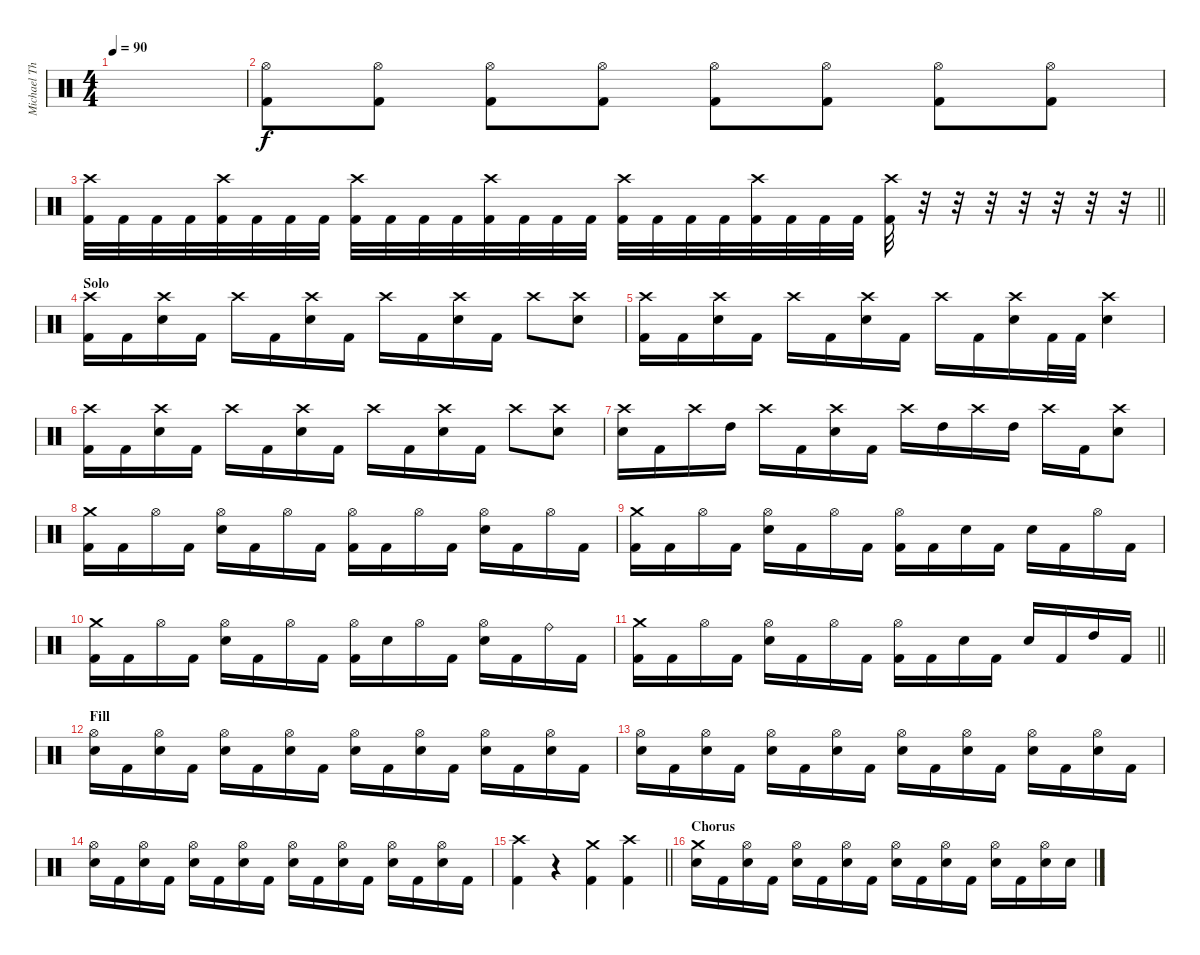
\track ("Michael Thomas" "Michael Th") {instrument percussion}
\staff {score}
\articulation defaults
\ts (4 4)
\tempo 90
\clef neutral
\ks c
|
("Hi-Hat (open)" "Kick (hit) 2").8 ("Hi-Hat (open)" "Kick (hit) 2").8 ("Hi-Hat (open)" "Kick (hit) 2").8 ("Hi-Hat (open)" "Kick (hit) 2").8 ("Hi-Hat (open)" "Kick (hit) 2").8 ("Hi-Hat (open)" "Kick (hit) 2").8 ("Hi-Hat (open)" "Kick (hit) 2").8 ("Hi-Hat (open)" "Kick (hit) 2").8 |
\barLineRight lightlight
("Crash high (hit)" "Kick (hit) 2").32 "Kick (hit) 2".32 "Kick (hit) 2".32 "Kick (hit) 2".32 ("Crash high (hit)" "Kick (hit) 2").32 "Kick (hit) 2".32 "Kick (hit) 2".32 "Kick (hit) 2".32 ("Crash high (hit)" "Kick (hit) 2").32 "Kick (hit) 2".32 "Kick (hit) 2".32 "Kick (hit) 2".32 ("Crash high (hit)" "Kick (hit) 2").32 "Kick (hit) 2".32 "Kick (hit) 2".32 "Kick (hit) 2".32 ("Crash high (hit)" "Kick (hit) 2").32 "Kick (hit) 2".32 "Kick (hit) 2".32 "Kick (hit) 2".32 ("Crash high (hit)" "Kick (hit) 2").32 "Kick (hit) 2".32 "Kick (hit) 2".32 "Kick (hit) 2".32 ("Crash high (hit)" "Kick (hit) 2").32 r.32 r.32 r.32 r.32 r.32 r.32 r.32 |
\section ("" "Solo")
("Crash high (hit)" "Kick (hit) 2").16 "Kick (hit) 2".16 ("Crash high (hit)" "Electric Snare (hit)").16 "Kick (hit) 2".16 "Crash high (hit)".16 "Kick (hit) 2".16 ("Crash high (hit)" "Electric Snare (hit)").16 "Kick (hit) 2".16 "Crash high (hit)".16 "Kick (hit) 2".16 ("Crash high (hit)" "Electric Snare (hit)").16 "Kick (hit) 2".16 "Crash high (hit)".8 ("Crash high (hit)" "Electric Snare (hit)").8 |
("Crash high (hit)" "Kick (hit) 2").16 "Kick (hit) 2".16 ("Crash high (hit)" "Electric Snare (hit)").16 "Kick (hit) 2".16 "Crash high (hit)".16 "Kick (hit) 2".16 ("Crash high (hit)" "Electric Snare (hit)").16 "Kick (hit) 2".16 "Crash high (hit)".16 "Kick (hit) 2".16 ("Crash high (hit)" "Electric Snare (hit)").16 "Kick (hit) 2".32 "Kick (hit) 2".32 ("Crash high (hit)" "Electric Snare (hit)").4 |
("Crash high (hit)" "Kick (hit) 2").16 "Kick (hit) 2".16 ("Crash high (hit)" "Electric Snare (hit)").16 "Kick (hit) 2".16 "Crash high (hit)".16 "Kick (hit) 2".16 ("Crash high (hit)" "Electric Snare (hit)").16 "Kick (hit) 2".16 "Crash high (hit)".16 "Kick (hit) 2".16 ("Crash high (hit)" "Electric Snare (hit)").16 "Kick (hit) 2".16 "Crash high (hit)".8 ("Crash high (hit)" "Electric Snare (hit)").8 |
("Crash high (hit)" "Electric Snare (hit)").16 "Kick (hit) 2".16 "Crash high (hit)".16 "High Tom (hit)".16 "Crash high (hit)".16 "Kick (hit) 2".16 ("Crash high (hit)" "Electric Snare (hit)").16 "Kick (hit) 2".16 "Crash high (hit)".16 "High Tom (hit)".16 "Crash high (hit)".16 "High Tom (hit)".16 "Crash high (hit)".16 "Kick (hit) 2".16 ("Crash high (hit)" "Electric Snare (hit)").8 |
("Crash medium (hit)" "Kick (hit) 2").16 "Kick (hit) 2".16 "Hi-Hat (open)".16 "Kick (hit) 2".16 ("Hi-Hat (open)" "Electric Snare (hit)").16 "Kick (hit) 2".16 "Hi-Hat (open)".16 "Kick (hit) 2".16 ("Hi-Hat (open)" "Kick (hit) 2").16 "Kick (hit) 2".16 "Hi-Hat (open)".16 "Kick (hit) 2".16 ("Hi-Hat (open)" "Electric Snare (hit)").16 "Kick (hit) 2".16 "Hi-Hat (open)".16 "Kick (hit) 2".16 |
("Crash medium (hit)" "Kick (hit) 2").16 "Kick (hit) 2".16 "Hi-Hat (open)".16 "Kick (hit) 2".16 ("Hi-Hat (open)" "Electric Snare (hit)").16 "Kick (hit) 2".16 "Hi-Hat (open)".16 "Kick (hit) 2".16 ("Hi-Hat (open)" "Kick (hit) 2").16 "Kick (hit) 2".16 "Electric Snare (hit)".16 "Kick (hit) 2".16 "Electric Snare (hit)".16 "Kick (hit) 2".16 "Hi-Hat (open)".16 "Kick (hit) 2".16 |
("Crash medium (hit)" "Kick (hit) 2").16 "Kick (hit) 2".16 "Hi-Hat (open)".16 "Kick (hit) 2".16 ("Hi-Hat (open)" "Electric Snare (hit)").16 "Kick (hit) 2".16 "Hi-Hat (open)".16 "Kick (hit) 2".16 ("Hi-Hat (open)" "Kick (hit) 2").16 "Electric Snare (hit)".16 "Hi-Hat (open)".16 "Kick (hit) 2".16 ("Hi-Hat (open)" "Electric Snare (hit)").16 "Kick (hit) 2".16 "Ride (bell)".16 "Kick (hit) 2".16 |
\barLineRight lightlight
("Crash medium (hit)" "Kick (hit) 2").16 "Kick (hit) 2".16 "Hi-Hat (open)".16 "Kick (hit) 2".16 ("Hi-Hat (open)" "Electric Snare (hit)").16 "Kick (hit) 2".16 "Hi-Hat (open)".16 "Kick (hit) 2".16 ("Hi-Hat (open)" "Kick (hit) 2").16 "Kick (hit) 2".16 "Electric Snare (hit)".16 "Kick (hit) 2".16 "Electric Snare (hit)".16 "Kick (hit) 2".16 "High Tom (hit)".16 "Kick (hit) 2".16 |
\section ("" "Fill")
("Hi-Hat (open)" "Electric Snare (hit)").16{volume 6} "Kick (hit) 2".16 ("Hi-Hat (open)" "Electric Snare (hit)").16 "Kick (hit) 2".16 ("Hi-Hat (open)" "Electric Snare (hit)").16 "Kick (hit) 2".16 ("Hi-Hat (open)" "Electric Snare (hit)").16 "Kick (hit) 2".16 ("Hi-Hat (open)" "Electric Snare (hit)").16 "Kick (hit) 2".16 ("Hi-Hat (open)" "Electric Snare (hit)").16 "Kick (hit) 2".16 ("Hi-Hat (open)" "Electric Snare (hit)").16 "Kick (hit) 2".16 ("Hi-Hat (open)" "Electric Snare (hit)").16 "Kick (hit) 2".16 |
("Hi-Hat (open)" "Electric Snare (hit)").16 "Kick (hit) 2".16 ("Hi-Hat (open)" "Electric Snare (hit)").16 "Kick (hit) 2".16 ("Hi-Hat (open)" "Electric Snare (hit)").16 "Kick (hit) 2".16 ("Hi-Hat (open)" "Electric Snare (hit)").16 "Kick (hit) 2".16 ("Hi-Hat (open)" "Electric Snare (hit)").16 "Kick (hit) 2".16 ("Hi-Hat (open)" "Electric Snare (hit)").16 "Kick (hit) 2".16 ("Hi-Hat (open)" "Electric Snare (hit)").16 "Kick (hit) 2".16 ("Hi-Hat (open)" "Electric Snare (hit)").16 "Kick (hit) 2".16 |
("Hi-Hat (open)" "Electric Snare (hit)").16 "Kick (hit) 2".16 ("Hi-Hat (open)" "Electric Snare (hit)").16 "Kick (hit) 2".16 ("Hi-Hat (open)" "Electric Snare (hit)").16 "Kick (hit) 2".16 ("Hi-Hat (open)" "Electric Snare (hit)").16 "Kick (hit) 2".16 ("Hi-Hat (open)" "Electric Snare (hit)").16 "Kick (hit) 2".16 ("Hi-Hat (open)" "Electric Snare (hit)").16 "Kick (hit) 2".16 ("Hi-Hat (open)" "Electric Snare (hit)").16 "Kick (hit) 2".16 ("Hi-Hat (open)" "Electric Snare (hit)").16 "Kick (hit) 2".16 |
\barLineRight lightlight
("Crash high (hit)" "Kick (hit) 2").4{volume 13} r.4 ("Crash medium (hit)" "Kick (hit) 2").4 ("Crash high (hit)" "Kick (hit) 2").4 |
\section ("" "Chorus")
("Crash medium (hit)" "Electric Snare (hit)").16 "Kick (hit) 2".16 ("Hi-Hat (open)" "Electric Snare (hit)").16 "Kick (hit) 2".16 ("Hi-Hat (open)" "Electric Snare (hit)").16 "Kick (hit) 2".16 ("Hi-Hat (open)" "Electric Snare (hit)").16 "Kick (hit) 2".16 ("Hi-Hat (open)" "Electric Snare (hit)").16 "Kick (hit) 2".16 ("Hi-Hat (open)" "Electric Snare (hit)").16 "Kick (hit) 2".16 ("Hi-Hat (open)" "Electric Snare (hit)").16 "Kick (hit) 2".16 ("Hi-Hat (open)" "Electric Snare (hit)").16 "Electric Snare (hit)".16
